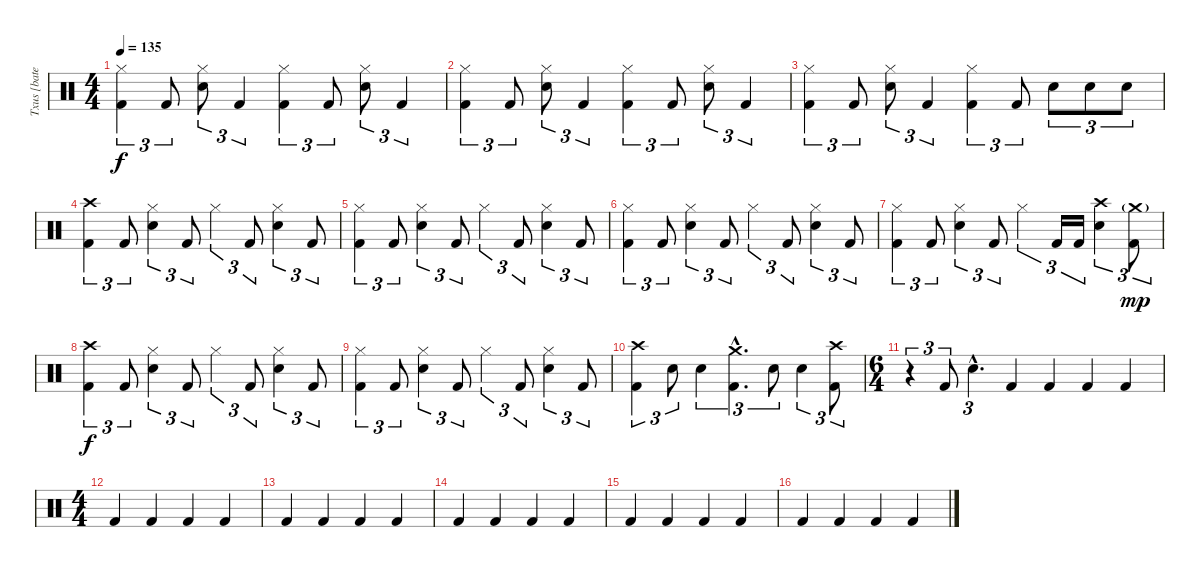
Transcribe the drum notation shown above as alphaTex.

\track ("Txus [bateria]" "Txus [bate") {instrument percussion}
\staff {score}
\articulation defaults
\ts (4 4)
\tempo 135
\clef neutral
\ks c
("Hi-Hat (closed)" "Kick (hit) 2").4{tu (3 2) dy f} "Kick (hit) 2".8{tu (3 2)} ("Hi-Hat (closed)" "Snare (hit) 2").8{tu (3 2)} "Kick (hit) 2".4{tu (3 2)} ("Hi-Hat (closed)" "Kick (hit) 2").4{tu (3 2)} "Kick (hit) 2".8{tu (3 2)} ("Hi-Hat (closed)" "Snare (hit) 2").8{tu (3 2)} "Kick (hit) 2".4{tu (3 2)} |
("Hi-Hat (closed)" "Kick (hit) 2").4{tu (3 2)} "Kick (hit) 2".8{tu (3 2)} ("Hi-Hat (closed)" "Snare (hit) 2").8{tu (3 2)} "Kick (hit) 2".4{tu (3 2)} ("Hi-Hat (closed)" "Kick (hit) 2").4{tu (3 2)} "Kick (hit) 2".8{tu (3 2)} ("Hi-Hat (closed)" "Snare (hit) 2").8{tu (3 2)} "Kick (hit) 2".4{tu (3 2)} |
("Hi-Hat (closed)" "Kick (hit) 2").4{tu (3 2)} "Kick (hit) 2".8{tu (3 2)} ("Hi-Hat (closed)" "Snare (hit) 2").8{tu (3 2)} "Kick (hit) 2".4{tu (3 2)} ("Hi-Hat (closed)" "Kick (hit) 2").4{tu (3 2)} "Kick (hit) 2".8{tu (3 2)} "Snare (hit) 2".8{tu (3 2)} "Snare (hit) 2".8{tu (3 2)} "Snare (hit) 2".8{tu (3 2)} |
("Crash high (hit)" "Kick (hit) 2").4{tu (3 2)} "Kick (hit) 2".8{tu (3 2)} ("Hi-Hat (closed)" "Snare (hit) 2").4{tu (3 2)} "Kick (hit) 2".8{tu (3 2)} "Hi-Hat (closed)".4{tu (3 2)} "Kick (hit) 2".8{tu (3 2)} ("Hi-Hat (closed)" "Snare (hit) 2").4{tu (3 2)} "Kick (hit) 2".8{tu (3 2)} |
("Hi-Hat (closed)" "Kick (hit) 2").4{tu (3 2)} "Kick (hit) 2".8{tu (3 2)} ("Hi-Hat (closed)" "Snare (hit) 2").4{tu (3 2)} "Kick (hit) 2".8{tu (3 2)} "Hi-Hat (closed)".4{tu (3 2)} "Kick (hit) 2".8{tu (3 2)} ("Hi-Hat (closed)" "Snare (hit) 2").4{tu (3 2)} "Kick (hit) 2".8{tu (3 2)} |
("Hi-Hat (closed)" "Kick (hit) 2").4{tu (3 2)} "Kick (hit) 2".8{tu (3 2)} ("Hi-Hat (closed)" "Snare (hit) 2").4{tu (3 2)} "Kick (hit) 2".8{tu (3 2)} "Hi-Hat (closed)".4{tu (3 2)} "Kick (hit) 2".8{tu (3 2)} ("Hi-Hat (closed)" "Snare (hit) 2").4{tu (3 2)} "Kick (hit) 2".8{tu (3 2)} |
("Hi-Hat (closed)" "Kick (hit) 2").4{tu (3 2)} "Kick (hit) 2".8{tu (3 2)} ("Hi-Hat (closed)" "Snare (hit) 2").4{tu (3 2)} "Kick (hit) 2".8{tu (3 2)} "Hi-Hat (closed)".4{tu (3 2)} "Kick (hit) 2".16{tu (3 2)} "Kick (hit) 2".16{tu (3 2)} ("Crash high (hit)" "Snare (hit) 2").4{tu (3 2)} ("Crash medium (hit)"{g} "Kick (hit) 2").8{tu (3 2) dy mp} |
("Crash high (hit)" "Kick (hit) 2").4{tu (3 2) dy f} "Kick (hit) 2".8{tu (3 2)} ("Hi-Hat (closed)" "Snare (hit) 2").4{tu (3 2)} "Kick (hit) 2".8{tu (3 2)} "Hi-Hat (closed)".4{tu (3 2)} "Kick (hit) 2".8{tu (3 2)} ("Hi-Hat (closed)" "Snare (hit) 2").4{tu (3 2)} "Kick (hit) 2".8{tu (3 2)} |
("Hi-Hat (closed)" "Kick (hit) 2").4{tu (3 2)} "Kick (hit) 2".8{tu (3 2)} ("Hi-Hat (closed)" "Snare (hit) 2").4{tu (3 2)} "Kick (hit) 2".8{tu (3 2)} "Hi-Hat (closed)".4{tu (3 2)} "Kick (hit) 2".8{tu (3 2)} ("Hi-Hat (closed)" "Snare (hit) 2").4{tu (3 2)} "Kick (hit) 2".8{tu (3 2)} |
("Crash high (hit)" "Kick (hit) 2").4{tu (3 2)} "Snare (hit) 2".8{tu (3 2)} "Snare (hit) 2".4{tu (3 2)} ("Crash medium (hit)"{hac} "Kick (hit) 2"{hac}).4{d tu (3 2)} "Snare (hit) 2".8{tu (3 2)} "Snare (hit) 2".4{tu (3 2)} ("Crash high (hit)" "Kick (hit) 2").8{tu (3 2)} |
\ts (6 4)
r.4{tu (3 2)} "Kick (hit) 2".8{tu (3 2)} "Snare (hit) 2"{hac}.4{d tu (3 2)} "Kick (hit) 2".4 "Kick (hit) 2".4 "Kick (hit) 2".4 "Kick (hit) 2".4 |
\ts (4 4)
"Kick (hit) 2".4 "Kick (hit) 2".4 "Kick (hit) 2".4 "Kick (hit) 2".4 |
"Kick (hit) 2".4 "Kick (hit) 2".4 "Kick (hit) 2".4 "Kick (hit) 2".4 |
"Kick (hit) 2".4 "Kick (hit) 2".4 "Kick (hit) 2".4 "Kick (hit) 2".4 |
"Kick (hit) 2".4 "Kick (hit) 2".4 "Kick (hit) 2".4 "Kick (hit) 2".4 |
"Kick (hit) 2".4 "Kick (hit) 2".4 "Kick (hit) 2".4 "Kick (hit) 2".4
